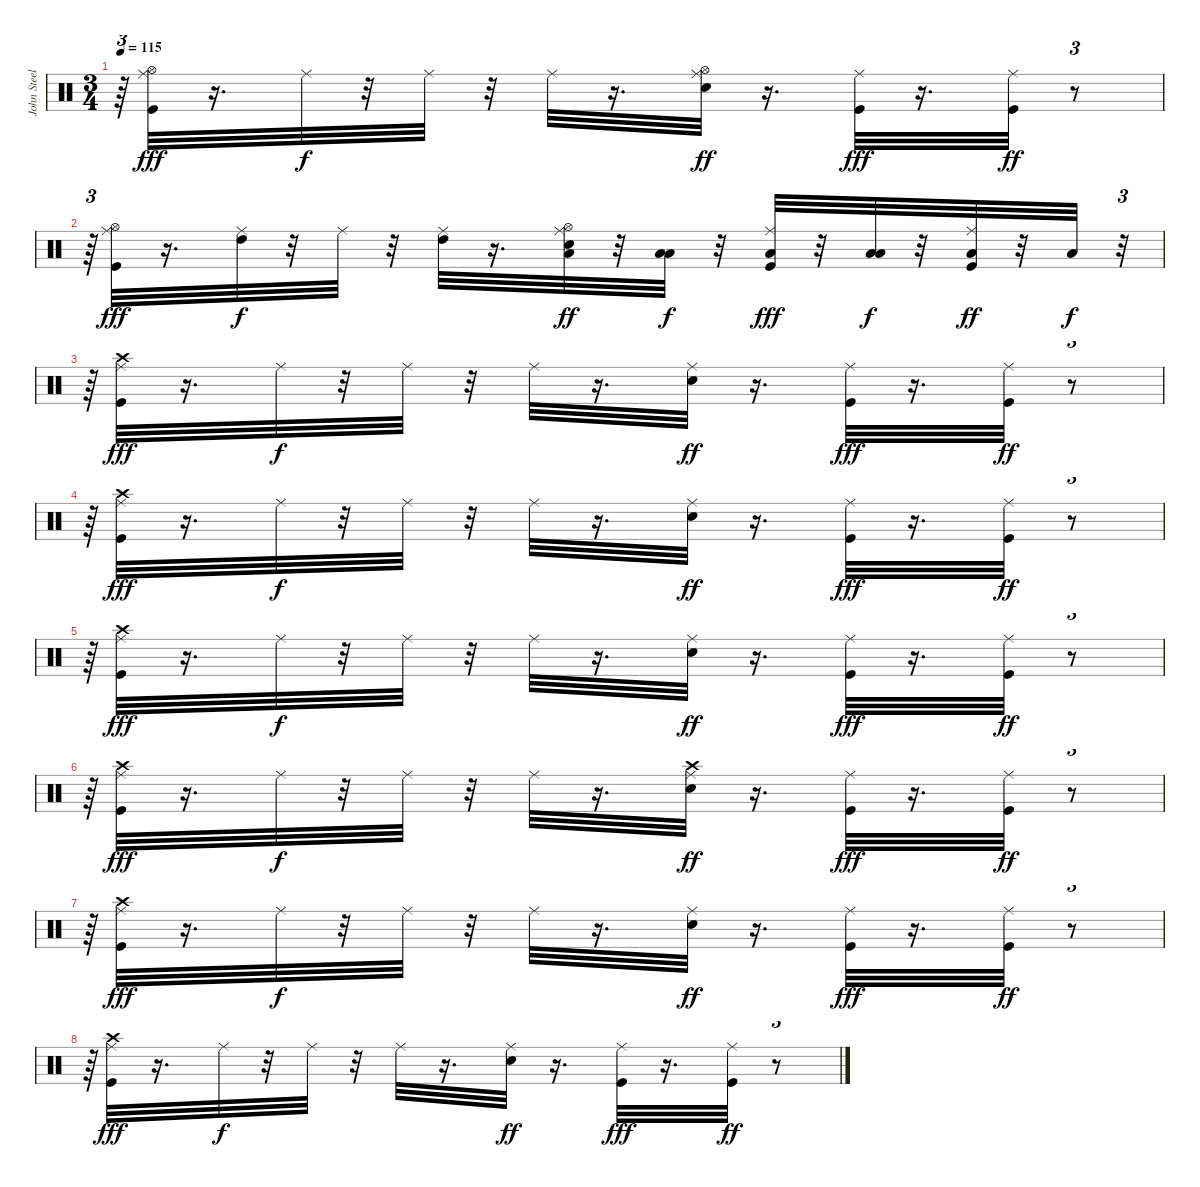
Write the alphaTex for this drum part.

\track ("John Steel" "John Steel") {instrument percussion}
\staff {score}
\articulation defaults
\ts (3 4)
\tempo 115
\clef neutral
\ks c
r.64{tu (3 2) dy ff} ("Kick (hit)" "Hi-Hat (open)" "Ride (middle)").32{dy fff} r.16{d} "Ride (middle)".32{dy f} r.32 "Ride (middle)".32 r.32 "Ride (middle)".32 r.16{d} ("Snare (hit) 2" "Hi-Hat (open)" "Ride (middle)").32{dy ff} r.16{d} ("Kick (hit)" "Ride (middle)").32{dy fff} r.16{d} ("Kick (hit)" "Ride (middle)").32{dy ff} r.8{tu (3 2)} |
r.64{tu (3 2)} ("Kick (hit)" "Hi-Hat (open)" "Ride (middle)").32{dy fff} r.16{d} ("High Tom (hit)" "Ride (middle)").32{dy f} r.32 "Ride (middle)".32 r.32 ("High Tom (hit)" "Ride (middle)").32 r.16{d} ("Snare (hit) 2" "Low Tom (hit)" "Hi-Hat (open)" "Ride (middle)").32{dy ff} r.32 ("Low Floor Tom (hit)" "Low Tom (hit)").32{dy f} r.32 ("Kick (hit)" "Low Tom (hit)" "Ride (middle)").32{dy fff} r.32 ("Low Floor Tom (hit)" "Low Tom (hit)").32{dy f} r.32 ("Kick (hit)" "Low Floor Tom (hit)" "Ride (middle)").32{dy ff} r.32 "Low Floor Tom (hit)".32{dy f} r.32{tu (3 2)} |
r.64{tu (3 2)} ("Kick (hit)" "Crash high (hit)" "Ride (middle)").32{dy fff} r.16{d} "Ride (middle)".32{dy f} r.32 "Ride (middle)".32 r.32 "Ride (middle)".32 r.16{d} ("Snare (hit) 2" "Ride (middle)").32{dy ff} r.16{d} ("Kick (hit)" "Ride (middle)").32{dy fff} r.16{d} ("Kick (hit)" "Ride (middle)").32{dy ff} r.8{tu (3 2)} |
r.64{tu (3 2)} ("Kick (hit)" "Crash high (hit)" "Ride (middle)").32{dy fff} r.16{d} "Ride (middle)".32{dy f} r.32 "Ride (middle)".32 r.32 "Ride (middle)".32 r.16{d} ("Snare (hit) 2" "Ride (middle)").32{dy ff} r.16{d} ("Kick (hit)" "Ride (middle)").32{dy fff} r.16{d} ("Kick (hit)" "Ride (middle)").32{dy ff} r.8{tu (3 2)} |
r.64{tu (3 2)} ("Kick (hit)" "Crash high (hit)" "Ride (middle)").32{dy fff} r.16{d} "Ride (middle)".32{dy f} r.32 "Ride (middle)".32 r.32 "Ride (middle)".32 r.16{d} ("Snare (hit) 2" "Ride (middle)").32{dy ff} r.16{d} ("Kick (hit)" "Ride (middle)").32{dy fff} r.16{d} ("Kick (hit)" "Ride (middle)").32{dy ff} r.8{tu (3 2)} |
r.64{tu (3 2)} ("Kick (hit)" "Crash high (hit)" "Ride (middle)").32{dy fff} r.16{d} "Ride (middle)".32{dy f} r.32 "Ride (middle)".32 r.32 "Ride (middle)".32 r.16{d} ("Snare (hit) 2" "Crash high (hit)" "Ride (middle)").32{dy ff} r.16{d} ("Kick (hit)" "Ride (middle)").32{dy fff} r.16{d} ("Kick (hit)" "Ride (middle)").32{dy ff} r.8{tu (3 2)} |
r.64{tu (3 2)} ("Kick (hit)" "Crash high (hit)" "Ride (middle)").32{dy fff} r.16{d} "Ride (middle)".32{dy f} r.32 "Ride (middle)".32 r.32 "Ride (middle)".32 r.16{d} ("Snare (hit) 2" "Ride (middle)").32{dy ff} r.16{d} ("Kick (hit)" "Ride (middle)").32{dy fff} r.16{d} ("Kick (hit)" "Ride (middle)").32{dy ff} r.8{tu (3 2)} |
r.64{tu (3 2)} ("Kick (hit)" "Crash high (hit)" "Ride (middle)").32{dy fff} r.16{d} "Ride (middle)".32{dy f} r.32 "Ride (middle)".32 r.32 "Ride (middle)".32 r.16{d} ("Snare (hit) 2" "Ride (middle)").32{dy ff} r.16{d} ("Kick (hit)" "Ride (middle)").32{dy fff} r.16{d} ("Kick (hit)" "Ride (middle)").32{dy ff} r.8{tu (3 2)}
